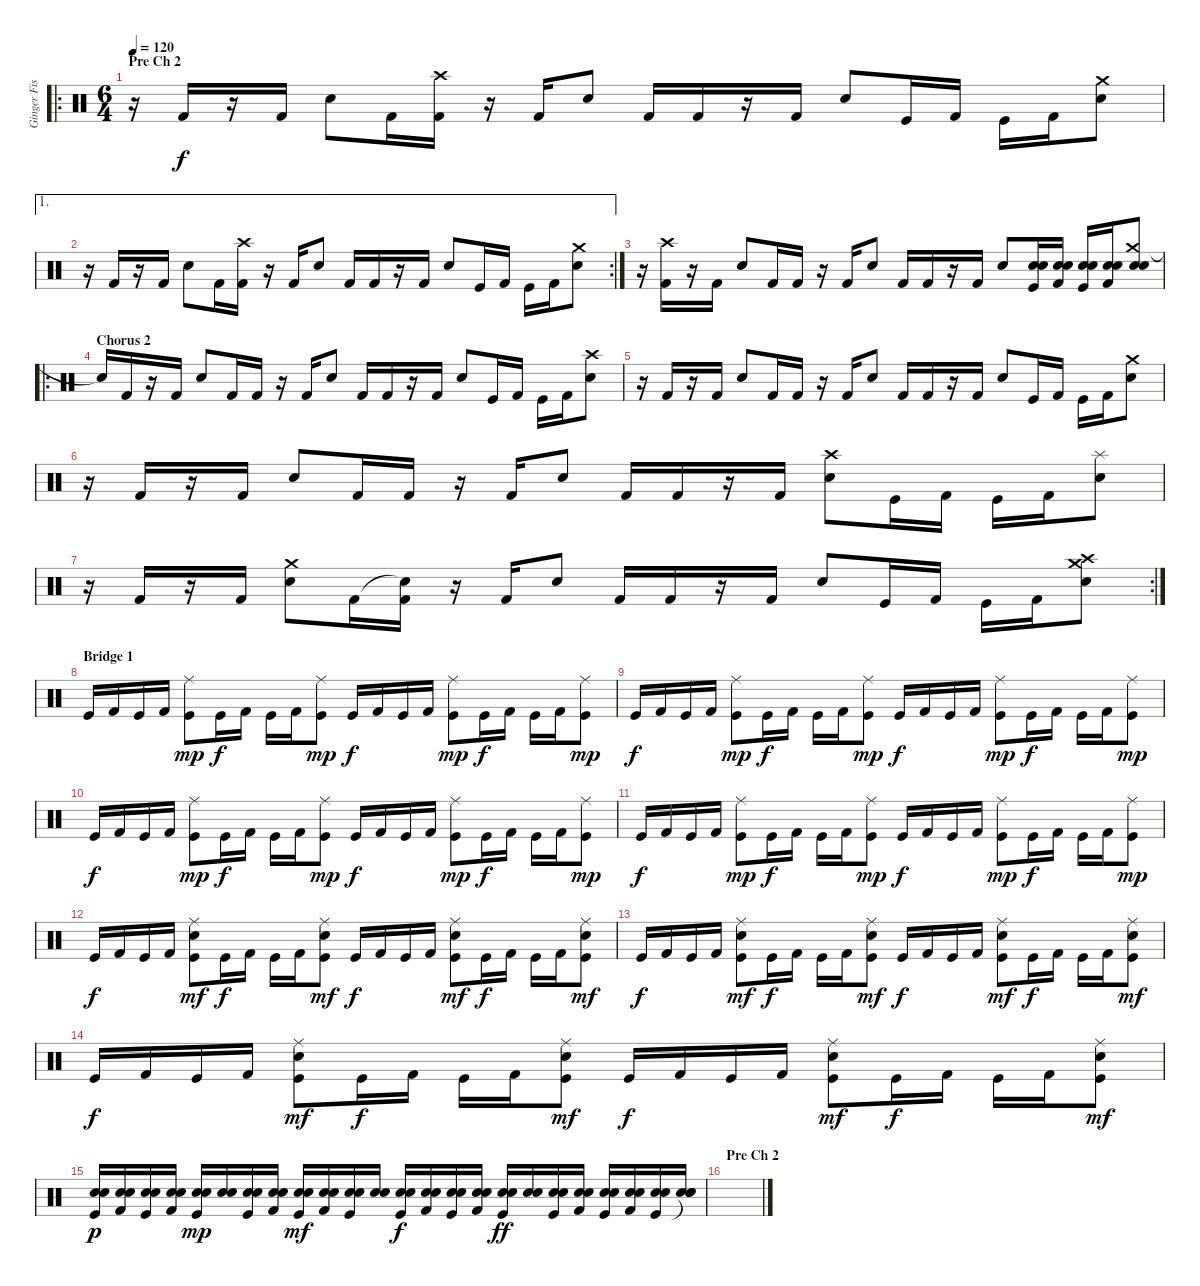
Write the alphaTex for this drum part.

\track ("Ginger Fish" "Ginger Fis") {instrument percussion}
\staff {score}
\articulation defaults
\ro
\ts (6 4)
\section ("" "Pre Ch 2")
\tempo 120
\clef neutral
\ks c
r.16{dy f} "Kick (hit) 2".16 r.16 "Kick (hit) 2".16 "Snare (hit) 2".8 "Kick (hit) 2".16 ("Crash high (hit)" "Kick (hit) 2").16 r.16 "Kick (hit) 2".16 "Snare (hit) 2".8 "Kick (hit) 2".16 "Kick (hit) 2".16 r.16 "Kick (hit) 2".16 "Snare (hit) 2".8 "Kick (hit)".16 "Kick (hit) 2".16 "Kick (hit)".16 "Kick (hit) 2".16 ("Crash medium (hit)" "Snare (hit) 2").8 |
\ae 1
\rc 2
r.16 "Kick (hit) 2".16 r.16 "Kick (hit) 2".16 "Snare (hit) 2".8 "Kick (hit) 2".16 ("Crash high (hit)" "Kick (hit) 2").16 r.16 "Kick (hit) 2".16 "Snare (hit) 2".8 "Kick (hit) 2".16 "Kick (hit) 2".16 r.16 "Kick (hit) 2".16 "Snare (hit) 2".8 "Kick (hit)".16 "Kick (hit) 2".16 "Kick (hit)".16 "Kick (hit) 2".16 ("Crash medium (hit)" "Snare (hit) 2").8 |
r.16 ("Crash high (hit)" "Kick (hit) 2").16 r.16 "Kick (hit) 2".16 "Snare (hit) 2".8 "Kick (hit) 2".16 "Kick (hit) 2".16 r.16 "Kick (hit) 2".16 "Snare (hit) 2".8 "Kick (hit) 2".16 "Kick (hit) 2".16 r.16 "Kick (hit) 2".16 "Snare (hit) 2".8 ("Electric Snare (hit)" "Electric Snare (hit)" "Kick (hit)").16 ("Electric Snare (hit)" "Electric Snare (hit)" "Kick (hit) 2").16 ("Electric Snare (hit)" "Electric Snare (hit)" "Kick (hit)").16 ("Electric Snare (hit)" "Electric Snare (hit)" "Kick (hit) 2").16 ("Crash medium (hit)" "Electric Snare (hit)" "Snare (hit) 2").8 |
\ro
\section ("" "Chorus 2")
"Snare (hit)"{t}.16 "Kick (hit) 2".16 r.16 "Kick (hit) 2".16 "Snare (hit) 2".8 "Kick (hit) 2".16 "Kick (hit) 2".16 r.16 "Kick (hit) 2".16 "Snare (hit) 2".8 "Kick (hit) 2".16 "Kick (hit) 2".16 r.16 "Kick (hit) 2".16 "Snare (hit) 2".8 "Kick (hit)".16 "Kick (hit) 2".16 "Kick (hit)".16 "Kick (hit) 2".16 ("Crash high (hit)" "Snare (hit) 2").8 |
r.16 "Kick (hit) 2".16 r.16 "Kick (hit) 2".16 "Snare (hit) 2".8 "Kick (hit) 2".16 "Kick (hit) 2".16 r.16 "Kick (hit) 2".16 "Snare (hit) 2".8 "Kick (hit) 2".16 "Kick (hit) 2".16 r.16 "Kick (hit) 2".16 "Snare (hit) 2".8 "Kick (hit)".16 "Kick (hit) 2".16 "Kick (hit)".16 "Kick (hit) 2".16 ("Crash medium (hit)" "Snare (hit) 2").8 |
r.16 "Kick (hit) 2".16 r.16 "Kick (hit) 2".16 "Snare (hit) 2".8 "Kick (hit) 2".16 "Kick (hit) 2".16 r.16 "Kick (hit) 2".16 "Snare (hit) 2".8 "Kick (hit) 2".16 "Kick (hit) 2".16 r.16 "Kick (hit) 2".16 ("Crash high (hit)" "Snare (hit) 2").8 "Kick (hit)".16 "Kick (hit) 2".16 "Kick (hit)".16 "Kick (hit) 2".16 ("Splash (hit)" "Snare (hit) 2").8 |
\rc 2
r.16 "Kick (hit) 2".16 r.16 "Kick (hit) 2".16 ("Crash medium (hit)" "Snare (hit) 2").8 "Kick (hit) 2".16 ("Snare (hit)"{t} "Kick (hit) 2").16 r.16 "Kick (hit) 2".16 "Snare (hit) 2".8 "Kick (hit) 2".16 "Kick (hit) 2".16 r.16 "Kick (hit) 2".16 "Snare (hit) 2".8 "Kick (hit)".16 "Kick (hit) 2".16 "Kick (hit)".16 "Kick (hit) 2".16 ("Crash high (hit)" "Crash medium (hit)" "Snare (hit) 2").8 |
\section ("" "Bridge 1")
"Kick (hit)".16 "Kick (hit) 2".16 "Kick (hit)".16 "Kick (hit) 2".16 ("Ride (middle)" "Kick (hit)").8{dy mp} "Kick (hit)".16{dy f} "Kick (hit) 2".16 "Kick (hit)".16 "Kick (hit) 2".16 ("Ride (middle)" "Kick (hit)").8{dy mp} "Kick (hit)".16{dy f} "Kick (hit) 2".16 "Kick (hit)".16 "Kick (hit) 2".16 ("Ride (middle)" "Kick (hit)").8{dy mp} "Kick (hit)".16{dy f} "Kick (hit) 2".16 "Kick (hit)".16 "Kick (hit) 2".16 ("Ride (middle)" "Kick (hit)").8{dy mp} |
"Kick (hit)".16{dy f} "Kick (hit) 2".16 "Kick (hit)".16 "Kick (hit) 2".16 ("Ride (middle)" "Kick (hit)").8{dy mp} "Kick (hit)".16{dy f} "Kick (hit) 2".16 "Kick (hit)".16 "Kick (hit) 2".16 ("Ride (middle)" "Kick (hit)").8{dy mp} "Kick (hit)".16{dy f} "Kick (hit) 2".16 "Kick (hit)".16 "Kick (hit) 2".16 ("Ride (middle)" "Kick (hit)").8{dy mp} "Kick (hit)".16{dy f} "Kick (hit) 2".16 "Kick (hit)".16 "Kick (hit) 2".16 ("Ride (middle)" "Kick (hit)").8{dy mp} |
"Kick (hit)".16{dy f} "Kick (hit) 2".16 "Kick (hit)".16 "Kick (hit) 2".16 ("Ride (middle)" "Kick (hit)").8{dy mp} "Kick (hit)".16{dy f} "Kick (hit) 2".16 "Kick (hit)".16 "Kick (hit) 2".16 ("Ride (middle)" "Kick (hit)").8{dy mp} "Kick (hit)".16{dy f} "Kick (hit) 2".16 "Kick (hit)".16 "Kick (hit) 2".16 ("Ride (middle)" "Kick (hit)").8{dy mp} "Kick (hit)".16{dy f} "Kick (hit) 2".16 "Kick (hit)".16 "Kick (hit) 2".16 ("Ride (middle)" "Kick (hit)").8{dy mp} |
"Kick (hit)".16{dy f} "Kick (hit) 2".16 "Kick (hit)".16 "Kick (hit) 2".16 ("Ride (middle)" "Kick (hit)").8{dy mp} "Kick (hit)".16{dy f} "Kick (hit) 2".16 "Kick (hit)".16 "Kick (hit) 2".16 ("Ride (middle)" "Kick (hit)").8{dy mp} "Kick (hit)".16{dy f} "Kick (hit) 2".16 "Kick (hit)".16 "Kick (hit) 2".16 ("Ride (middle)" "Kick (hit)").8{dy mp} "Kick (hit)".16{dy f} "Kick (hit) 2".16 "Kick (hit)".16 "Kick (hit) 2".16 ("Ride (middle)" "Kick (hit)").8{dy mp} |
"Kick (hit)".16{dy f} "Kick (hit) 2".16 "Kick (hit)".16 "Kick (hit) 2".16 ("Ride (middle)" "Electric Snare (hit)" "Kick (hit)").8{dy mf} "Kick (hit)".16{dy f} "Kick (hit) 2".16 "Kick (hit)".16 "Kick (hit) 2".16 ("Ride (middle)" "Electric Snare (hit)" "Kick (hit)").8{dy mf} "Kick (hit)".16{dy f} "Kick (hit) 2".16 "Kick (hit)".16 "Kick (hit) 2".16 ("Ride (middle)" "Electric Snare (hit)" "Kick (hit)").8{dy mf} "Kick (hit)".16{dy f} "Kick (hit) 2".16 "Kick (hit)".16 "Kick (hit) 2".16 ("Ride (middle)" "Electric Snare (hit)" "Kick (hit)").8{dy mf} |
"Kick (hit)".16{dy f} "Kick (hit) 2".16 "Kick (hit)".16 "Kick (hit) 2".16 ("Ride (middle)" "Electric Snare (hit)" "Kick (hit)").8{dy mf} "Kick (hit)".16{dy f} "Kick (hit) 2".16 "Kick (hit)".16 "Kick (hit) 2".16 ("Ride (middle)" "Electric Snare (hit)" "Kick (hit)").8{dy mf} "Kick (hit)".16{dy f} "Kick (hit) 2".16 "Kick (hit)".16 "Kick (hit) 2".16 ("Ride (middle)" "Electric Snare (hit)" "Kick (hit)").8{dy mf} "Kick (hit)".16{dy f} "Kick (hit) 2".16 "Kick (hit)".16 "Kick (hit) 2".16 ("Ride (middle)" "Electric Snare (hit)" "Kick (hit)").8{dy mf} |
"Kick (hit)".16{dy f} "Kick (hit) 2".16 "Kick (hit)".16 "Kick (hit) 2".16 ("Ride (middle)" "Electric Snare (hit)" "Kick (hit)").8{dy mf} "Kick (hit)".16{dy f} "Kick (hit) 2".16 "Kick (hit)".16 "Kick (hit) 2".16 ("Ride (middle)" "Electric Snare (hit)" "Kick (hit)").8{dy mf} "Kick (hit)".16{dy f} "Kick (hit) 2".16 "Kick (hit)".16 "Kick (hit) 2".16 ("Ride (middle)" "Electric Snare (hit)" "Kick (hit)").8{dy mf} "Kick (hit)".16{dy f} "Kick (hit) 2".16 "Kick (hit)".16 "Kick (hit) 2".16 ("Ride (middle)" "Electric Snare (hit)" "Kick (hit)").8{dy mf} |
("Electric Snare (hit)" "Electric Snare (hit)" "Kick (hit)").16{dy p} ("Electric Snare (hit)" "Electric Snare (hit)" "Kick (hit) 2").16 ("Electric Snare (hit)" "Electric Snare (hit)" "Kick (hit)").16 ("Electric Snare (hit)" "Electric Snare (hit)" "Kick (hit) 2").16 ("Electric Snare (hit)" "Electric Snare (hit)" "Kick (hit)").16{dy mp} ("Electric Snare (hit)" "Electric Snare (hit)").16 ("Electric Snare (hit)" "Electric Snare (hit)" "Kick (hit)").16 ("Electric Snare (hit)" "Electric Snare (hit)" "Kick (hit) 2").16 ("Electric Snare (hit)" "Electric Snare (hit)" "Kick (hit)").16{dy mf} ("Electric Snare (hit)" "Electric Snare (hit)" "Kick (hit) 2").16 ("Electric Snare (hit)" "Electric Snare (hit)" "Kick (hit)").16 ("Electric Snare (hit)" "Electric Snare (hit)").16 ("Electric Snare (hit)" "Electric Snare (hit)" "Kick (hit)").16{dy f} ("Electric Snare (hit)" "Electric Snare (hit)" "Kick (hit) 2").16 ("Electric Snare (hit)" "Electric Snare (hit)" "Kick (hit)").16 ("Electric Snare (hit)" "Electric Snare (hit)" "Kick (hit) 2").16 ("Electric Snare (hit)" "Electric Snare (hit)" "Kick (hit)").16{dy ff} ("Electric Snare (hit)" "Electric Snare (hit)").16 ("Electric Snare (hit)" "Electric Snare (hit)" "Kick (hit)").16 ("Electric Snare (hit)" "Electric Snare (hit)" "Kick (hit) 2").16 ("Electric Snare (hit)" "Electric Snare (hit)" "Kick (hit)").16 ("Electric Snare (hit)" "Electric Snare (hit)" "Kick (hit) 2").16 ("Electric Snare (hit)" "Electric Snare (hit)" "Kick (hit)").16 ("Electric Snare (hit)" "Electric Snare (hit)" "Snare (hit) 2"{t}).16 |
\section ("" "Pre Ch 2")
